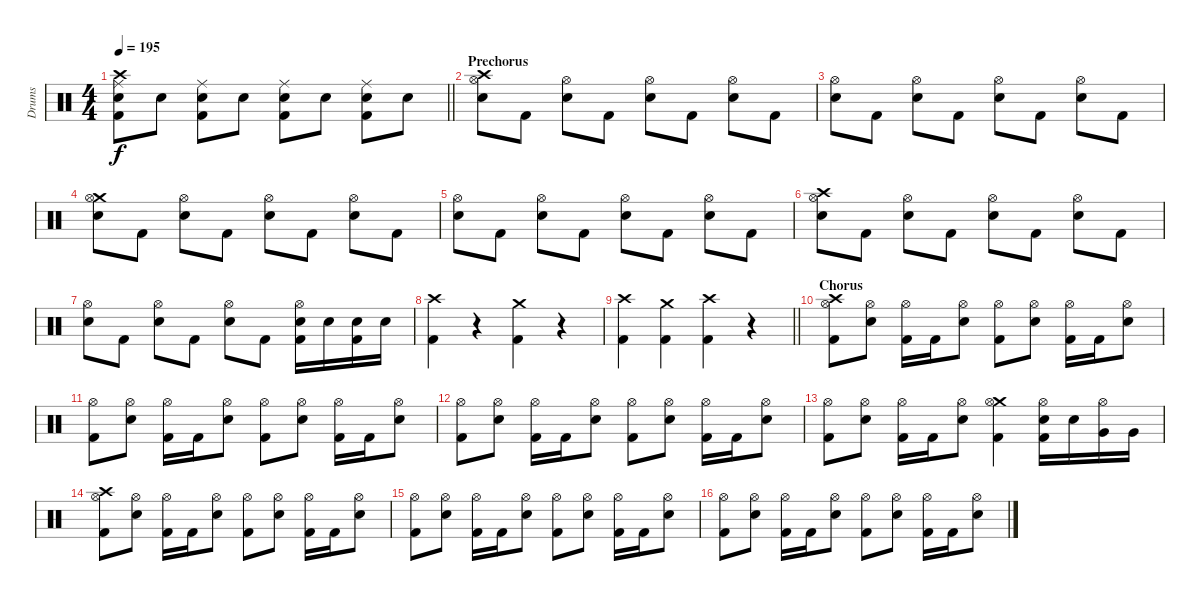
\track ("Drums" "Drums") {instrument percussion}
\staff {score}
\articulation defaults
\ts (4 4)
\tempo 195
\clef neutral
\barLineRight lightlight
\ks c
("Crash high (hit)" "Ride (middle)" "Snare (hit) 2" "Kick (hit) 2").8{dy f} "Snare (hit) 2".8 ("Ride (middle)" "Snare (hit) 2" "Kick (hit) 2").8 "Snare (hit) 2".8 ("Ride (middle)" "Snare (hit) 2" "Kick (hit) 2").8 "Snare (hit) 2".8 ("Ride (middle)" "Snare (hit) 2" "Kick (hit) 2").8 "Snare (hit) 2".8 |
\section ("" "Prechorus")
("Crash high (hit)" "Hi-Hat (open)" "Snare (hit) 2").8 "Kick (hit) 2".8 ("Hi-Hat (open)" "Snare (hit) 2").8 "Kick (hit) 2".8 ("Hi-Hat (open)" "Snare (hit) 2").8 "Kick (hit) 2".8 ("Hi-Hat (open)" "Snare (hit) 2").8 "Kick (hit) 2".8 |
("Hi-Hat (open)" "Snare (hit) 2").8 "Kick (hit) 2".8 ("Hi-Hat (open)" "Snare (hit) 2").8 "Kick (hit) 2".8 ("Hi-Hat (open)" "Snare (hit) 2").8 "Kick (hit) 2".8 ("Hi-Hat (open)" "Snare (hit) 2").8 "Kick (hit) 2".8 |
("Crash medium (hit)" "Hi-Hat (open)" "Snare (hit) 2").8 "Kick (hit) 2".8 ("Hi-Hat (open)" "Snare (hit) 2").8 "Kick (hit) 2".8 ("Hi-Hat (open)" "Snare (hit) 2").8 "Kick (hit) 2".8 ("Hi-Hat (open)" "Snare (hit) 2").8 "Kick (hit) 2".8 |
("Hi-Hat (open)" "Snare (hit) 2").8 "Kick (hit) 2".8 ("Hi-Hat (open)" "Snare (hit) 2").8 "Kick (hit) 2".8 ("Hi-Hat (open)" "Snare (hit) 2").8 "Kick (hit) 2".8 ("Hi-Hat (open)" "Snare (hit) 2").8 "Kick (hit) 2".8 |
("Crash high (hit)" "Hi-Hat (open)" "Snare (hit) 2").8 "Kick (hit) 2".8 ("Hi-Hat (open)" "Snare (hit) 2").8 "Kick (hit) 2".8 ("Hi-Hat (open)" "Snare (hit) 2").8 "Kick (hit) 2".8 ("Hi-Hat (open)" "Snare (hit) 2").8 "Kick (hit) 2".8 |
("Hi-Hat (open)" "Snare (hit) 2").8 "Kick (hit) 2".8 ("Hi-Hat (open)" "Snare (hit) 2").8 "Kick (hit) 2".8 ("Hi-Hat (open)" "Snare (hit) 2").8 "Kick (hit) 2".8 ("Hi-Hat (open)" "Snare (hit) 2" "Kick (hit) 2").16 "Snare (hit) 2".16 ("Snare (hit) 2" "Kick (hit) 2").16 "Snare (hit) 2".16 |
("Crash high (hit)" "Kick (hit) 2").4 r.4 ("Crash medium (hit)" "Kick (hit) 2").4 r.4 |
\barLineRight lightlight
("Crash high (hit)" "Kick (hit) 2").4 ("Crash medium (hit)" "Kick (hit) 2").4 ("Crash high (hit)" "Kick (hit) 2").4 r.4 |
\section ("" "Chorus")
("Crash high (hit)" "Hi-Hat (open)" "Kick (hit) 2").8 ("Hi-Hat (open)" "Snare (hit) 2").8 ("Hi-Hat (open)" "Kick (hit) 2").16 "Kick (hit) 2".16 ("Hi-Hat (open)" "Snare (hit) 2").8 ("Hi-Hat (open)" "Kick (hit) 2").8 ("Hi-Hat (open)" "Snare (hit) 2").8 ("Hi-Hat (open)" "Kick (hit) 2").16 "Kick (hit) 2".16 ("Hi-Hat (open)" "Snare (hit) 2").8 |
("Hi-Hat (open)" "Kick (hit) 2").8 ("Hi-Hat (open)" "Snare (hit) 2").8 ("Hi-Hat (open)" "Kick (hit) 2").16 "Kick (hit) 2".16 ("Hi-Hat (open)" "Snare (hit) 2").8 ("Hi-Hat (open)" "Kick (hit) 2").8 ("Hi-Hat (open)" "Snare (hit) 2").8 ("Hi-Hat (open)" "Kick (hit) 2").16 "Kick (hit) 2".16 ("Hi-Hat (open)" "Snare (hit) 2").8 |
("Hi-Hat (open)" "Kick (hit) 2").8 ("Hi-Hat (open)" "Snare (hit) 2").8 ("Hi-Hat (open)" "Kick (hit) 2").16 "Kick (hit) 2".16 ("Hi-Hat (open)" "Snare (hit) 2").8 ("Hi-Hat (open)" "Kick (hit) 2").8 ("Hi-Hat (open)" "Snare (hit) 2").8 ("Hi-Hat (open)" "Kick (hit) 2").16 "Kick (hit) 2".16 ("Hi-Hat (open)" "Snare (hit) 2").8 |
("Hi-Hat (open)" "Kick (hit) 2").8 ("Hi-Hat (open)" "Snare (hit) 2").8 ("Hi-Hat (open)" "Kick (hit) 2").16 "Kick (hit) 2".16 ("Hi-Hat (open)" "Snare (hit) 2").8 ("Crash medium (hit)" "Hi-Hat (open)" "Kick (hit) 2").4 ("Hi-Hat (open)" "Snare (hit) 2" "Kick (hit) 2").16 "Snare (hit) 2".16 ("Hi-Hat (open)" "Very Low Tom (hit)").16 "Very Low Tom (hit)".16 |
("Crash high (hit)" "Hi-Hat (open)" "Kick (hit) 2").8 ("Hi-Hat (open)" "Snare (hit) 2").8 ("Hi-Hat (open)" "Kick (hit) 2").16 "Kick (hit) 2".16 ("Hi-Hat (open)" "Snare (hit) 2").8 ("Hi-Hat (open)" "Kick (hit) 2").8 ("Hi-Hat (open)" "Snare (hit) 2").8 ("Hi-Hat (open)" "Kick (hit) 2").16 "Kick (hit) 2".16 ("Hi-Hat (open)" "Snare (hit) 2").8 |
("Hi-Hat (open)" "Kick (hit) 2").8 ("Hi-Hat (open)" "Snare (hit) 2").8 ("Hi-Hat (open)" "Kick (hit) 2").16 "Kick (hit) 2".16 ("Hi-Hat (open)" "Snare (hit) 2").8 ("Hi-Hat (open)" "Kick (hit) 2").8 ("Hi-Hat (open)" "Snare (hit) 2").8 ("Hi-Hat (open)" "Kick (hit) 2").16 "Kick (hit) 2".16 ("Hi-Hat (open)" "Snare (hit) 2").8 |
("Hi-Hat (open)" "Kick (hit) 2").8 ("Hi-Hat (open)" "Snare (hit) 2").8 ("Hi-Hat (open)" "Kick (hit) 2").16 "Kick (hit) 2".16 ("Hi-Hat (open)" "Snare (hit) 2").8 ("Hi-Hat (open)" "Kick (hit) 2").8 ("Hi-Hat (open)" "Snare (hit) 2").8 ("Hi-Hat (open)" "Kick (hit) 2").16 "Kick (hit) 2".16 ("Hi-Hat (open)" "Snare (hit) 2").8
